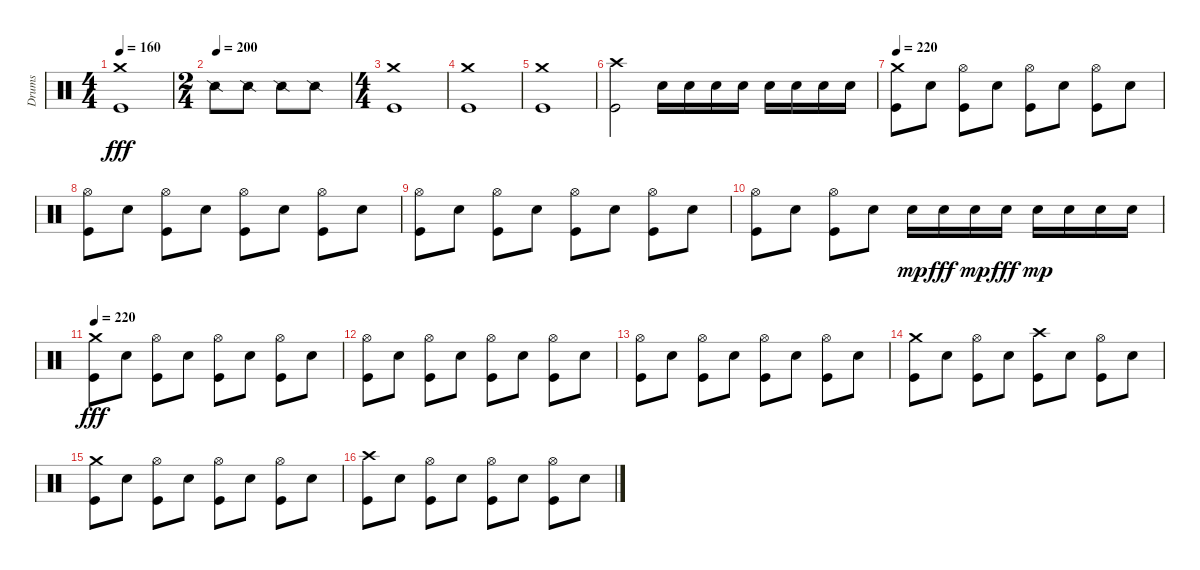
\track ("Drums" "Drums") {instrument percussion}
\staff {score}
\articulation defaults
\ts (4 4)
\tempo 160
\clef neutral
\ks c
("Crash medium (hit)" "Kick (hit)").1{dy fff} |
\ts (2 4)
\tempo (200)
"Snare (side stick) 2".8 "Snare (side stick) 2".8 "Snare (side stick) 2".8 "Snare (side stick) 2".8 |
\ts (4 4)
("Crash medium (hit)" "Kick (hit)").1 |
("Crash medium (hit)" "Kick (hit)").1 |
("Crash medium (hit)" "Kick (hit)").1 |
("Crash high (hit)" "Kick (hit)").2 "Electric Snare (hit)".16 "Electric Snare (hit)".16 "Electric Snare (hit)".16 "Electric Snare (hit)".16 "Electric Snare (hit)".16 "Electric Snare (hit)".16 "Electric Snare (hit)".16 "Electric Snare (hit)".16 |
\tempo 220
("Crash medium (hit)" "Kick (hit)").8 "Electric Snare (hit)".8 ("Hi-Hat (open)" "Kick (hit)").8 "Electric Snare (hit)".8 ("Hi-Hat (open)" "Kick (hit)").8 "Electric Snare (hit)".8 ("Hi-Hat (open)" "Kick (hit)").8 "Electric Snare (hit)".8 |
("Hi-Hat (open)" "Kick (hit)").8 "Electric Snare (hit)".8 ("Hi-Hat (open)" "Kick (hit)").8 "Electric Snare (hit)".8 ("Hi-Hat (open)" "Kick (hit)").8 "Electric Snare (hit)".8 ("Hi-Hat (open)" "Kick (hit)").8 "Electric Snare (hit)".8 |
("Hi-Hat (open)" "Kick (hit)").8 "Electric Snare (hit)".8 ("Hi-Hat (open)" "Kick (hit)").8 "Electric Snare (hit)".8 ("Hi-Hat (open)" "Kick (hit)").8 "Electric Snare (hit)".8 ("Hi-Hat (open)" "Kick (hit)").8 "Electric Snare (hit)".8 |
("Hi-Hat (open)" "Kick (hit)").8 "Electric Snare (hit)".8 ("Hi-Hat (open)" "Kick (hit)").8 "Electric Snare (hit)".8 "Electric Snare (hit)".16{dy mp} "Electric Snare (hit)".16{dy fff} "Electric Snare (hit)".16{dy mp} "Electric Snare (hit)".16{dy fff} "Electric Snare (hit)".16{dy mp} "Electric Snare (hit)".16 "Electric Snare (hit)".16 "Electric Snare (hit)".16 |
\tempo 220
("Crash medium (hit)" "Kick (hit)").8{dy fff} "Electric Snare (hit)".8 ("Hi-Hat (open)" "Kick (hit)").8 "Electric Snare (hit)".8 ("Hi-Hat (open)" "Kick (hit)").8 "Electric Snare (hit)".8 ("Hi-Hat (open)" "Kick (hit)").8 "Electric Snare (hit)".8 |
("Hi-Hat (open)" "Kick (hit)").8 "Electric Snare (hit)".8 ("Hi-Hat (open)" "Kick (hit)").8 "Electric Snare (hit)".8 ("Hi-Hat (open)" "Kick (hit)").8 "Electric Snare (hit)".8 ("Hi-Hat (open)" "Kick (hit)").8 "Electric Snare (hit)".8 |
("Hi-Hat (open)" "Kick (hit)").8 "Electric Snare (hit)".8 ("Hi-Hat (open)" "Kick (hit)").8 "Electric Snare (hit)".8 ("Hi-Hat (open)" "Kick (hit)").8 "Electric Snare (hit)".8 ("Hi-Hat (open)" "Kick (hit)").8 "Electric Snare (hit)".8 |
("Crash medium (hit)" "Kick (hit)").8 "Electric Snare (hit)".8 ("Hi-Hat (open)" "Kick (hit)").8 "Electric Snare (hit)".8 ("Crash high (hit)" "Kick (hit)").8 "Electric Snare (hit)".8 ("Hi-Hat (open)" "Kick (hit)").8 "Electric Snare (hit)".8 |
("Crash medium (hit)" "Kick (hit)").8 "Electric Snare (hit)".8 ("Hi-Hat (open)" "Kick (hit)").8 "Electric Snare (hit)".8 ("Hi-Hat (open)" "Kick (hit)").8 "Electric Snare (hit)".8 ("Hi-Hat (open)" "Kick (hit)").8 "Electric Snare (hit)".8 |
("Crash high (hit)" "Kick (hit)").8 "Electric Snare (hit)".8 ("Hi-Hat (open)" "Kick (hit)").8 "Electric Snare (hit)".8 ("Hi-Hat (open)" "Kick (hit)").8 "Electric Snare (hit)".8 ("Hi-Hat (open)" "Kick (hit)").8 "Electric Snare (hit)".8
